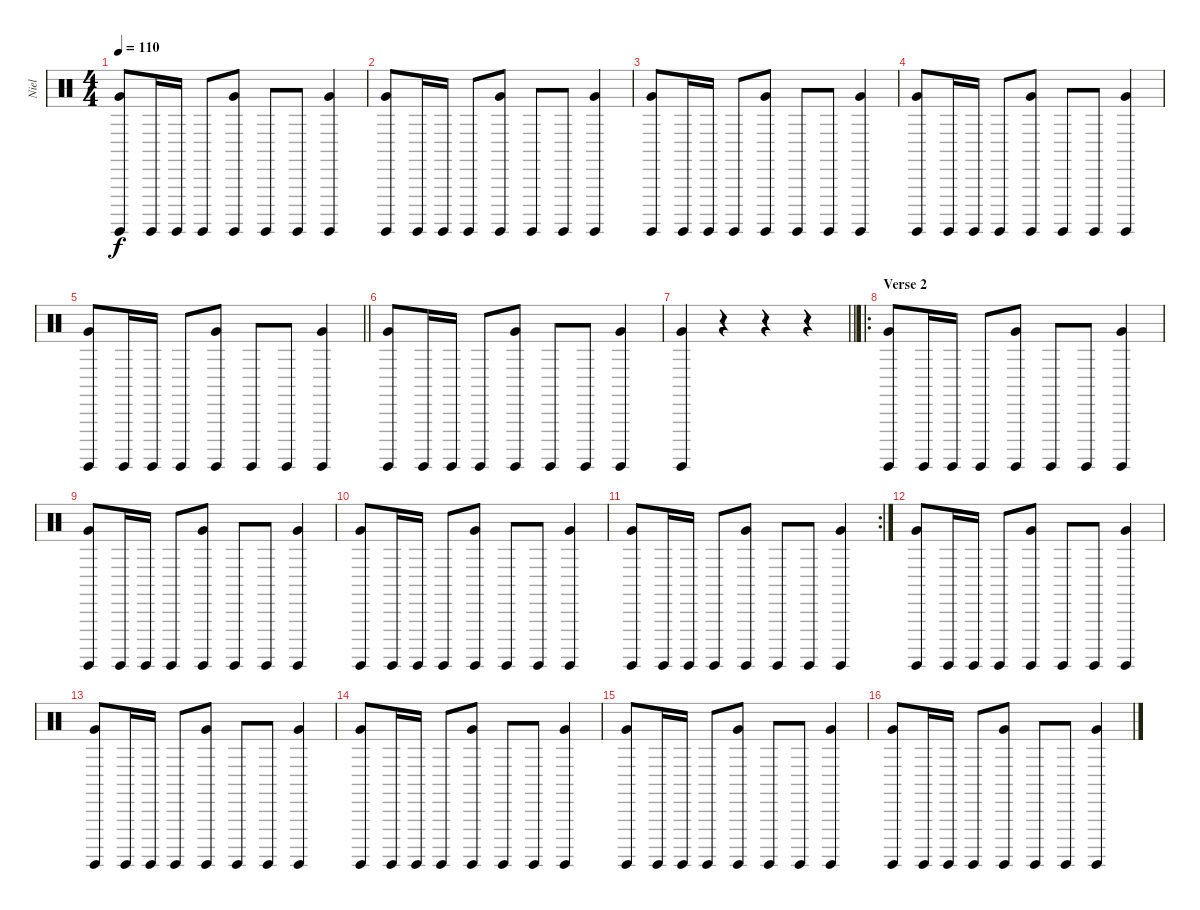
\track ("Niel" "Niel") {instrument percussion bank 1}
\staff {score}
\articulation defaults
\ts (4 4)
\tempo 110
\clef neutral
\ks c
("Very Low Tom (hit)" "Surdo (hit)").8{dy f} "Surdo (hit)".16 "Surdo (hit)".16 "Surdo (hit)".8 ("Very Low Tom (hit)" "Surdo (hit)").8 "Surdo (hit)".8 "Surdo (hit)".8 ("Very Low Tom (hit)" "Surdo (hit)").4 |
("Very Low Tom (hit)" "Surdo (hit)").8 "Surdo (hit)".16 "Surdo (hit)".16 "Surdo (hit)".8 ("Very Low Tom (hit)" "Surdo (hit)").8 "Surdo (hit)".8 "Surdo (hit)".8 ("Very Low Tom (hit)" "Surdo (hit)").4 |
("Very Low Tom (hit)" "Surdo (hit)").8 "Surdo (hit)".16 "Surdo (hit)".16 "Surdo (hit)".8 ("Very Low Tom (hit)" "Surdo (hit)").8 "Surdo (hit)".8 "Surdo (hit)".8 ("Very Low Tom (hit)" "Surdo (hit)").4 |
("Very Low Tom (hit)" "Surdo (hit)").8 "Surdo (hit)".16 "Surdo (hit)".16 "Surdo (hit)".8 ("Very Low Tom (hit)" "Surdo (hit)").8 "Surdo (hit)".8 "Surdo (hit)".8 ("Very Low Tom (hit)" "Surdo (hit)").4 |
\barLineRight lightlight
("Very Low Tom (hit)" "Surdo (hit)").8 "Surdo (hit)".16 "Surdo (hit)".16 "Surdo (hit)".8 ("Very Low Tom (hit)" "Surdo (hit)").8 "Surdo (hit)".8 "Surdo (hit)".8 ("Very Low Tom (hit)" "Surdo (hit)").4 |
\section ("" "")
("Very Low Tom (hit)" "Surdo (hit)").8 "Surdo (hit)".16 "Surdo (hit)".16 "Surdo (hit)".8 ("Very Low Tom (hit)" "Surdo (hit)").8 "Surdo (hit)".8 "Surdo (hit)".8 ("Very Low Tom (hit)" "Surdo (hit)").4 |
\barLineRight lightlight
("Very Low Tom (hit)" "Surdo (hit)").4 r.4 r.4 r.4 |
\ro
\section ("" "Verse 2")
("Very Low Tom (hit)" "Surdo (hit)").8 "Surdo (hit)".16 "Surdo (hit)".16 "Surdo (hit)".8 ("Very Low Tom (hit)" "Surdo (hit)").8 "Surdo (hit)".8 "Surdo (hit)".8 ("Very Low Tom (hit)" "Surdo (hit)").4 |
("Very Low Tom (hit)" "Surdo (hit)").8 "Surdo (hit)".16 "Surdo (hit)".16 "Surdo (hit)".8 ("Very Low Tom (hit)" "Surdo (hit)").8 "Surdo (hit)".8 "Surdo (hit)".8 ("Very Low Tom (hit)" "Surdo (hit)").4 |
("Very Low Tom (hit)" "Surdo (hit)").8 "Surdo (hit)".16 "Surdo (hit)".16 "Surdo (hit)".8 ("Very Low Tom (hit)" "Surdo (hit)").8 "Surdo (hit)".8 "Surdo (hit)".8 ("Very Low Tom (hit)" "Surdo (hit)").4 |
\rc 2
("Very Low Tom (hit)" "Surdo (hit)").8 "Surdo (hit)".16 "Surdo (hit)".16 "Surdo (hit)".8 ("Very Low Tom (hit)" "Surdo (hit)").8 "Surdo (hit)".8 "Surdo (hit)".8 ("Very Low Tom (hit)" "Surdo (hit)").4 |
("Very Low Tom (hit)" "Surdo (hit)").8 "Surdo (hit)".16 "Surdo (hit)".16 "Surdo (hit)".8 ("Very Low Tom (hit)" "Surdo (hit)").8 "Surdo (hit)".8 "Surdo (hit)".8 ("Very Low Tom (hit)" "Surdo (hit)").4 |
("Very Low Tom (hit)" "Surdo (hit)").8 "Surdo (hit)".16 "Surdo (hit)".16 "Surdo (hit)".8 ("Very Low Tom (hit)" "Surdo (hit)").8 "Surdo (hit)".8 "Surdo (hit)".8 ("Very Low Tom (hit)" "Surdo (hit)").4 |
("Very Low Tom (hit)" "Surdo (hit)").8 "Surdo (hit)".16 "Surdo (hit)".16 "Surdo (hit)".8 ("Very Low Tom (hit)" "Surdo (hit)").8 "Surdo (hit)".8 "Surdo (hit)".8 ("Very Low Tom (hit)" "Surdo (hit)").4 |
("Very Low Tom (hit)" "Surdo (hit)").8 "Surdo (hit)".16 "Surdo (hit)".16 "Surdo (hit)".8 ("Very Low Tom (hit)" "Surdo (hit)").8 "Surdo (hit)".8 "Surdo (hit)".8 ("Very Low Tom (hit)" "Surdo (hit)").4 |
("Very Low Tom (hit)" "Surdo (hit)").8 "Surdo (hit)".16 "Surdo (hit)".16 "Surdo (hit)".8 ("Very Low Tom (hit)" "Surdo (hit)").8 "Surdo (hit)".8 "Surdo (hit)".8 ("Very Low Tom (hit)" "Surdo (hit)").4
